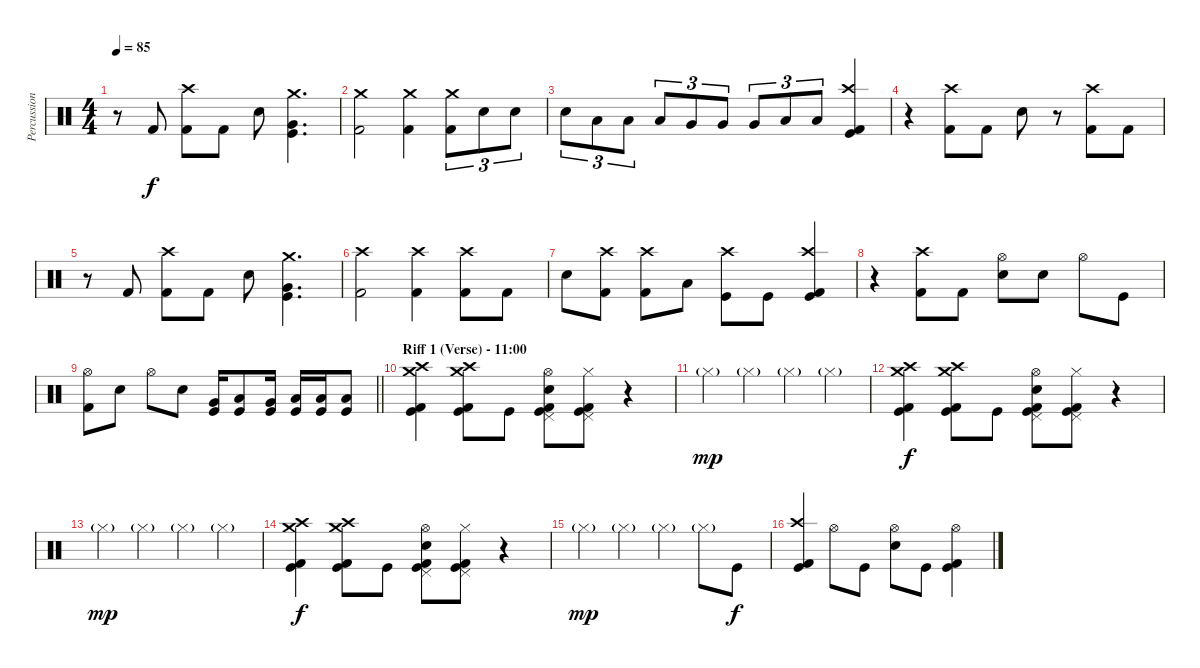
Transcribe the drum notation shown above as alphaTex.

\track ("Percussion" "Percussion") {instrument percussion}
\staff {score}
\articulation defaults
\ts (4 4)
\tempo 85
\clef neutral
\ks c
r.8{dy f} "Kick (hit) 2".8 ("Kick (hit) 2" "Crash high (hit)").8 "Kick (hit) 2".8 "Snare (hit) 2".8 ("Kick (hit)" "Very Low Tom (hit)" "Crash medium (hit)").4{d} |
("Kick (hit) 2" "Crash medium (hit)").2 ("Kick (hit) 2" "Crash medium (hit)").4 ("Kick (hit) 2" "Crash medium (hit)").8{tu (3 2)} "Snare (hit) 2".8{tu (3 2)} "Snare (hit) 2".8{tu (3 2)} |
"Snare (hit) 2".8{tu (3 2)} "Low Tom (hit)".8{tu (3 2)} "Low Tom (hit)".8{tu (3 2)} "Low Tom (hit)".8{tu (3 2)} "Very Low Tom (hit)".8{tu (3 2)} "Very Low Tom (hit)".8{tu (3 2)} "Very Low Tom (hit)".8{tu (3 2)} "Low Floor Tom (hit)".8{tu (3 2)} "Low Floor Tom (hit)".8{tu (3 2)} ("Kick (hit)" "Kick (hit) 2" "Crash high (hit)").4 |
r.4 ("Kick (hit) 2" "Crash high (hit)").8 "Kick (hit) 2".8 "Snare (hit) 2".8 r.8 ("Kick (hit) 2" "Crash high (hit)").8 "Kick (hit) 2".8 |
r.8 "Kick (hit) 2".8 ("Kick (hit) 2" "Crash high (hit)").8 "Kick (hit) 2".8 "Snare (hit) 2".8 ("Kick (hit)" "Very Low Tom (hit)" "Crash medium (hit)").4{d} |
("Kick (hit) 2" "Crash high (hit)").2 ("Kick (hit) 2" "Crash high (hit)").4 ("Kick (hit) 2" "Crash high (hit)").8 "Kick (hit) 2".8 |
"Snare (hit) 2".8 ("Kick (hit) 2" "Crash high (hit)").8 ("Kick (hit) 2" "Crash high (hit)").8 "Low Tom (hit)".8 ("Kick (hit)" "Crash high (hit)").8 "Kick (hit)".8 ("Kick (hit)" "Kick (hit) 2" "Crash high (hit)").4 |
r.4 ("Kick (hit) 2" "Crash high (hit)").8 "Kick (hit) 2".8 ("Snare (hit) 2" "Hi-Hat (open)").8 "Snare (hit) 2".8 "Hi-Hat (open)".8 "Kick (hit)".8 |
\barLineRight lightlight
("Kick (hit) 2" "Hi-Hat (open)").8 "Snare (hit) 2".8 "Hi-Hat (open)".8 "Snare (hit) 2".8 ("Kick (hit)" "Very Low Tom (hit)").16 ("Kick (hit)" "Low Floor Tom (hit)").8 ("Kick (hit)" "Very Low Tom (hit)").16 ("Kick (hit)" "Low Floor Tom (hit)").16 ("Kick (hit)" "Low Floor Tom (hit)").16 ("Kick (hit)" "Low Floor Tom (hit)").8 |
\section ("" "Riff 1 (Verse) - 11:00")
("Kick (hit)" "Kick (hit) 2" "Crash high (hit)" "Crash medium (hit)").4 ("Kick (hit)" "Kick (hit) 2" "Crash high (hit)" "Crash medium (hit)").8 "Kick (hit)".8 ("Kick (hit)" "Kick (hit) 2" "Snare (hit) 2" "Pedal Hi-Hat (hit)" "Hi-Hat (open)").8 ("Kick (hit)" "Kick (hit) 2" "Pedal Hi-Hat (hit)" "Hi-Hat (closed)").8 r.4 |
"Hi-Hat (closed)"{g}.4{dy mp} "Hi-Hat (closed)"{g}.4 "Hi-Hat (closed)"{g}.4 "Hi-Hat (closed)"{g}.4 |
("Kick (hit)" "Kick (hit) 2" "Crash high (hit)" "Crash medium (hit)").4{dy f} ("Kick (hit)" "Kick (hit) 2" "Crash high (hit)" "Crash medium (hit)").8 "Kick (hit)".8 ("Kick (hit)" "Kick (hit) 2" "Snare (hit) 2" "Pedal Hi-Hat (hit)" "Hi-Hat (open)").8 ("Kick (hit)" "Kick (hit) 2" "Pedal Hi-Hat (hit)" "Hi-Hat (closed)").8 r.4 |
"Hi-Hat (closed)"{g}.4{dy mp} "Hi-Hat (closed)"{g}.4 "Hi-Hat (closed)"{g}.4 "Hi-Hat (closed)"{g}.4 |
("Kick (hit)" "Kick (hit) 2" "Crash high (hit)" "Crash medium (hit)").4{dy f} ("Kick (hit)" "Kick (hit) 2" "Crash high (hit)" "Crash medium (hit)").8 "Kick (hit)".8 ("Kick (hit)" "Kick (hit) 2" "Snare (hit) 2" "Pedal Hi-Hat (hit)" "Hi-Hat (open)").8 ("Kick (hit)" "Kick (hit) 2" "Pedal Hi-Hat (hit)" "Hi-Hat (closed)").8 r.4 |
"Hi-Hat (closed)"{g}.4{dy mp} "Hi-Hat (closed)"{g}.4 "Hi-Hat (closed)"{g}.4 "Hi-Hat (closed)"{g}.8 "Kick (hit)".8{dy f} |
("Kick (hit)" "Kick (hit) 2" "Crash high (hit)").4 "Hi-Hat (open)".8 "Kick (hit)".8 ("Snare (hit) 2" "Hi-Hat (open)").8 "Kick (hit)".8 ("Kick (hit)" "Kick (hit) 2" "Hi-Hat (open)").4
